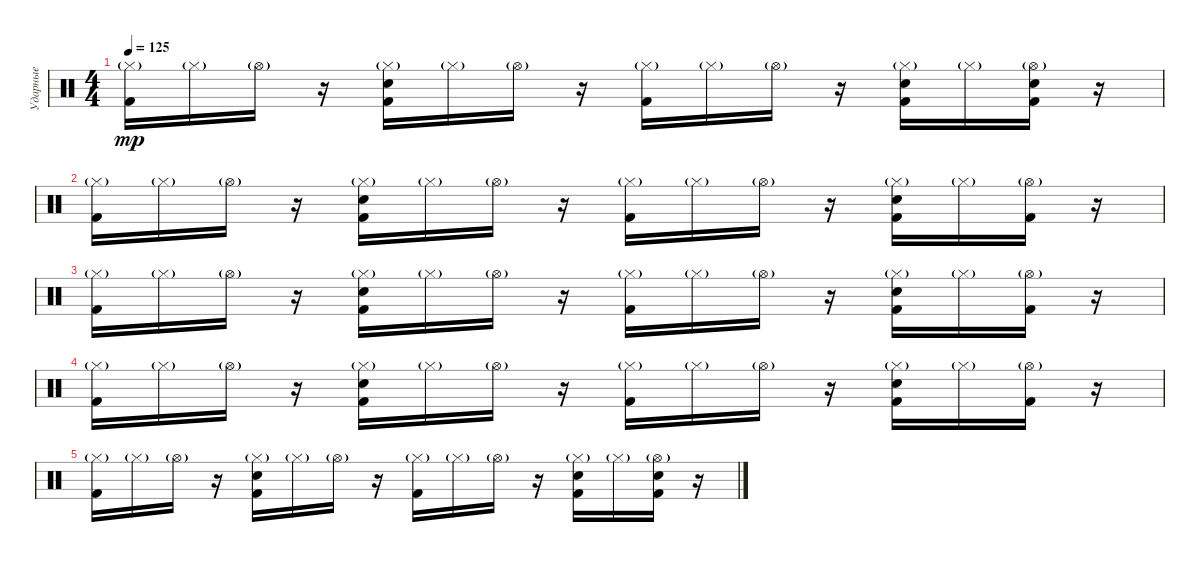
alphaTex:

\track ("Ударные" "Ударные") {instrument percussion}
\staff {score}
\articulation defaults
\ts (4 4)
\tempo 125
\clef neutral
\ks c
("Hi-Hat (closed)"{g} "Kick (hit) 2").16{dy mp} "Hi-Hat (closed)"{g}.16 "Hi-Hat (open)"{g}.16 r.16 ("Snare (hit) 2" "Hi-Hat (closed)"{g} "Kick (hit) 2").16 "Hi-Hat (closed)"{g}.16 "Hi-Hat (open)"{g}.16 r.16 ("Hi-Hat (closed)"{g} "Kick (hit) 2").16 "Hi-Hat (closed)"{g}.16 "Hi-Hat (open)"{g}.16 r.16 ("Snare (hit) 2" "Hi-Hat (closed)"{g} "Kick (hit) 2").16 "Hi-Hat (closed)"{g}.16 ("Snare (hit) 2" "Hi-Hat (open)"{g} "Kick (hit) 2").16 r.16 |
("Hi-Hat (closed)"{g} "Kick (hit) 2").16 "Hi-Hat (closed)"{g}.16 "Hi-Hat (open)"{g}.16 r.16 ("Snare (hit) 2" "Hi-Hat (closed)"{g} "Kick (hit) 2").16 "Hi-Hat (closed)"{g}.16 "Hi-Hat (open)"{g}.16 r.16 ("Hi-Hat (closed)"{g} "Kick (hit) 2").16 "Hi-Hat (closed)"{g}.16 "Hi-Hat (open)"{g}.16 r.16 ("Snare (hit) 2" "Hi-Hat (closed)"{g} "Kick (hit) 2").16 "Hi-Hat (closed)"{g}.16 ("Hi-Hat (open)"{g} "Kick (hit) 2").16 r.16 |
("Hi-Hat (closed)"{g} "Kick (hit) 2").16 "Hi-Hat (closed)"{g}.16 "Hi-Hat (open)"{g}.16 r.16 ("Snare (hit) 2" "Hi-Hat (closed)"{g} "Kick (hit) 2").16 "Hi-Hat (closed)"{g}.16 "Hi-Hat (open)"{g}.16 r.16 ("Hi-Hat (closed)"{g} "Kick (hit) 2").16 "Hi-Hat (closed)"{g}.16 "Hi-Hat (open)"{g}.16 r.16 ("Snare (hit) 2" "Hi-Hat (closed)"{g} "Kick (hit) 2").16 "Hi-Hat (closed)"{g}.16 ("Hi-Hat (open)"{g} "Kick (hit) 2").16 r.16 |
("Hi-Hat (closed)"{g} "Kick (hit) 2").16 "Hi-Hat (closed)"{g}.16 "Hi-Hat (open)"{g}.16 r.16 ("Snare (hit) 2" "Hi-Hat (closed)"{g} "Kick (hit) 2").16 "Hi-Hat (closed)"{g}.16 "Hi-Hat (open)"{g}.16 r.16 ("Hi-Hat (closed)"{g} "Kick (hit) 2").16 "Hi-Hat (closed)"{g}.16 "Hi-Hat (open)"{g}.16 r.16 ("Snare (hit) 2" "Hi-Hat (closed)"{g} "Kick (hit) 2").16 "Hi-Hat (closed)"{g}.16 ("Hi-Hat (open)"{g} "Kick (hit) 2").16 r.16 |
("Hi-Hat (closed)"{g} "Kick (hit) 2").16 "Hi-Hat (closed)"{g}.16 "Hi-Hat (open)"{g}.16 r.16 ("Snare (hit) 2" "Hi-Hat (closed)"{g} "Kick (hit) 2").16 "Hi-Hat (closed)"{g}.16 "Hi-Hat (open)"{g}.16 r.16 ("Hi-Hat (closed)"{g} "Kick (hit) 2").16 "Hi-Hat (closed)"{g}.16 "Hi-Hat (open)"{g}.16 r.16 ("Snare (hit) 2" "Hi-Hat (closed)"{g} "Kick (hit) 2").16 "Hi-Hat (closed)"{g}.16 ("Snare (hit) 2" "Hi-Hat (open)"{g} "Kick (hit) 2").16 r.16
